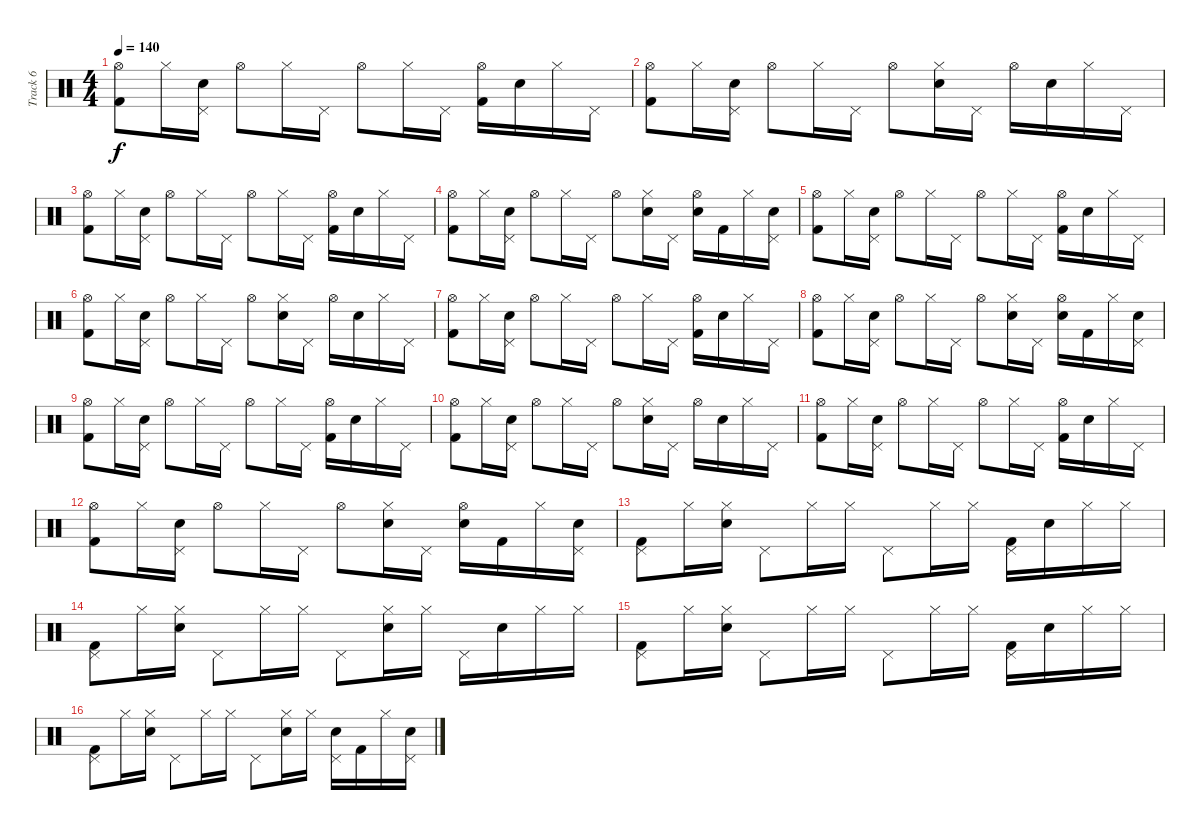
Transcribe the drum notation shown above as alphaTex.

\track ("Track 6" "Track 6") {instrument percussion}
\staff {score}
\articulation defaults
\ts (4 4)
\tempo 140
\clef neutral
\ks c
("Hi-Hat (open)" "Kick (hit) 2").8{dy f} "Hi-Hat (closed)".16 ("Pedal Hi-Hat (hit)" "Electric Snare (hit)").16 "Hi-Hat (open)".8 "Hi-Hat (closed)".16 "Pedal Hi-Hat (hit)".16 "Hi-Hat (open)".8 "Hi-Hat (closed)".16 "Pedal Hi-Hat (hit)".16 ("Hi-Hat (open)" "Kick (hit) 2").16 "Electric Snare (hit)".16 "Hi-Hat (closed)".16 "Pedal Hi-Hat (hit)".16 |
("Hi-Hat (open)" "Kick (hit) 2").8 "Hi-Hat (closed)".16 ("Pedal Hi-Hat (hit)" "Electric Snare (hit)").16 "Hi-Hat (open)".8 "Hi-Hat (closed)".16 "Pedal Hi-Hat (hit)".16 "Hi-Hat (open)".8 ("Hi-Hat (closed)" "Electric Snare (hit)").16 "Pedal Hi-Hat (hit)".16 "Hi-Hat (open)".16 "Electric Snare (hit)".16 "Hi-Hat (closed)".16 "Pedal Hi-Hat (hit)".16 |
("Hi-Hat (open)" "Kick (hit) 2").8 "Hi-Hat (closed)".16 ("Pedal Hi-Hat (hit)" "Electric Snare (hit)").16 "Hi-Hat (open)".8 "Hi-Hat (closed)".16 "Pedal Hi-Hat (hit)".16 "Hi-Hat (open)".8 "Hi-Hat (closed)".16 "Pedal Hi-Hat (hit)".16 ("Hi-Hat (open)" "Kick (hit) 2").16 "Electric Snare (hit)".16 "Hi-Hat (closed)".16 "Pedal Hi-Hat (hit)".16 |
("Hi-Hat (open)" "Kick (hit) 2").8 "Hi-Hat (closed)".16 ("Pedal Hi-Hat (hit)" "Electric Snare (hit)").16 "Hi-Hat (open)".8 "Hi-Hat (closed)".16 "Pedal Hi-Hat (hit)".16 "Hi-Hat (open)".8 ("Hi-Hat (closed)" "Electric Snare (hit)").16 "Pedal Hi-Hat (hit)".16 ("Hi-Hat (open)" "Electric Snare (hit)").16 "Kick (hit) 2".16 "Hi-Hat (closed)".16 ("Pedal Hi-Hat (hit)" "Electric Snare (hit)").16 |
("Hi-Hat (open)" "Kick (hit) 2").8 "Hi-Hat (closed)".16 ("Pedal Hi-Hat (hit)" "Electric Snare (hit)").16 "Hi-Hat (open)".8 "Hi-Hat (closed)".16 "Pedal Hi-Hat (hit)".16 "Hi-Hat (open)".8 "Hi-Hat (closed)".16 "Pedal Hi-Hat (hit)".16 ("Hi-Hat (open)" "Kick (hit) 2").16 "Electric Snare (hit)".16 "Hi-Hat (closed)".16 "Pedal Hi-Hat (hit)".16 |
("Hi-Hat (open)" "Kick (hit) 2").8 "Hi-Hat (closed)".16 ("Pedal Hi-Hat (hit)" "Electric Snare (hit)").16 "Hi-Hat (open)".8 "Hi-Hat (closed)".16 "Pedal Hi-Hat (hit)".16 "Hi-Hat (open)".8 ("Hi-Hat (closed)" "Electric Snare (hit)").16 "Pedal Hi-Hat (hit)".16 "Hi-Hat (open)".16 "Electric Snare (hit)".16 "Hi-Hat (closed)".16 "Pedal Hi-Hat (hit)".16 |
("Hi-Hat (open)" "Kick (hit) 2").8 "Hi-Hat (closed)".16 ("Pedal Hi-Hat (hit)" "Electric Snare (hit)").16 "Hi-Hat (open)".8 "Hi-Hat (closed)".16 "Pedal Hi-Hat (hit)".16 "Hi-Hat (open)".8 "Hi-Hat (closed)".16 "Pedal Hi-Hat (hit)".16 ("Hi-Hat (open)" "Kick (hit) 2").16 "Electric Snare (hit)".16 "Hi-Hat (closed)".16 "Pedal Hi-Hat (hit)".16 |
("Hi-Hat (open)" "Kick (hit) 2").8 "Hi-Hat (closed)".16 ("Pedal Hi-Hat (hit)" "Electric Snare (hit)").16 "Hi-Hat (open)".8 "Hi-Hat (closed)".16 "Pedal Hi-Hat (hit)".16 "Hi-Hat (open)".8 ("Hi-Hat (closed)" "Electric Snare (hit)").16 "Pedal Hi-Hat (hit)".16 ("Hi-Hat (open)" "Electric Snare (hit)").16 "Kick (hit) 2".16 "Hi-Hat (closed)".16 ("Pedal Hi-Hat (hit)" "Electric Snare (hit)").16 |
("Hi-Hat (open)" "Kick (hit) 2").8 "Hi-Hat (closed)".16 ("Pedal Hi-Hat (hit)" "Electric Snare (hit)").16 "Hi-Hat (open)".8 "Hi-Hat (closed)".16 "Pedal Hi-Hat (hit)".16 "Hi-Hat (open)".8 "Hi-Hat (closed)".16 "Pedal Hi-Hat (hit)".16 ("Hi-Hat (open)" "Kick (hit) 2").16 "Electric Snare (hit)".16 "Hi-Hat (closed)".16 "Pedal Hi-Hat (hit)".16 |
("Hi-Hat (open)" "Kick (hit) 2").8 "Hi-Hat (closed)".16 ("Pedal Hi-Hat (hit)" "Electric Snare (hit)").16 "Hi-Hat (open)".8 "Hi-Hat (closed)".16 "Pedal Hi-Hat (hit)".16 "Hi-Hat (open)".8 ("Hi-Hat (closed)" "Electric Snare (hit)").16 "Pedal Hi-Hat (hit)".16 "Hi-Hat (open)".16 "Electric Snare (hit)".16 "Hi-Hat (closed)".16 "Pedal Hi-Hat (hit)".16 |
("Hi-Hat (open)" "Kick (hit) 2").8 "Hi-Hat (closed)".16 ("Pedal Hi-Hat (hit)" "Electric Snare (hit)").16 "Hi-Hat (open)".8 "Hi-Hat (closed)".16 "Pedal Hi-Hat (hit)".16 "Hi-Hat (open)".8 "Hi-Hat (closed)".16 "Pedal Hi-Hat (hit)".16 ("Hi-Hat (open)" "Kick (hit) 2").16 "Electric Snare (hit)".16 "Hi-Hat (closed)".16 "Pedal Hi-Hat (hit)".16 |
("Hi-Hat (open)" "Kick (hit) 2").8 "Hi-Hat (closed)".16 ("Pedal Hi-Hat (hit)" "Electric Snare (hit)").16 "Hi-Hat (open)".8 "Hi-Hat (closed)".16 "Pedal Hi-Hat (hit)".16 "Hi-Hat (open)".8 ("Hi-Hat (closed)" "Electric Snare (hit)").16 "Pedal Hi-Hat (hit)".16 ("Hi-Hat (open)" "Electric Snare (hit)").16 "Kick (hit) 2".16 "Hi-Hat (closed)".16 ("Pedal Hi-Hat (hit)" "Electric Snare (hit)").16 |
("Pedal Hi-Hat (hit)" "Kick (hit) 2").8 "Hi-Hat (closed)".16 ("Hi-Hat (closed)" "Electric Snare (hit)").16 "Pedal Hi-Hat (hit)".8 "Hi-Hat (closed)".16 "Hi-Hat (closed)".16 "Pedal Hi-Hat (hit)".8 "Hi-Hat (closed)".16 "Hi-Hat (closed)".16 ("Pedal Hi-Hat (hit)" "Kick (hit) 2").16 "Electric Snare (hit)".16 "Hi-Hat (closed)".16 "Hi-Hat (closed)".16 |
("Pedal Hi-Hat (hit)" "Kick (hit) 2").8 "Hi-Hat (closed)".16 ("Hi-Hat (closed)" "Electric Snare (hit)").16 "Pedal Hi-Hat (hit)".8 "Hi-Hat (closed)".16 "Hi-Hat (closed)".16 "Pedal Hi-Hat (hit)".8 ("Hi-Hat (closed)" "Electric Snare (hit)").16 "Hi-Hat (closed)".16 "Pedal Hi-Hat (hit)".16 "Electric Snare (hit)".16 "Hi-Hat (closed)".16 "Hi-Hat (closed)".16 |
("Pedal Hi-Hat (hit)" "Kick (hit) 2").8 "Hi-Hat (closed)".16 ("Hi-Hat (closed)" "Electric Snare (hit)").16 "Pedal Hi-Hat (hit)".8 "Hi-Hat (closed)".16 "Hi-Hat (closed)".16 "Pedal Hi-Hat (hit)".8 "Hi-Hat (closed)".16 "Hi-Hat (closed)".16 ("Pedal Hi-Hat (hit)" "Kick (hit) 2").16 "Electric Snare (hit)".16 "Hi-Hat (closed)".16 "Hi-Hat (closed)".16 |
("Pedal Hi-Hat (hit)" "Kick (hit) 2").8 "Hi-Hat (closed)".16 ("Hi-Hat (closed)" "Electric Snare (hit)").16 "Pedal Hi-Hat (hit)".8 "Hi-Hat (closed)".16 "Hi-Hat (closed)".16 "Pedal Hi-Hat (hit)".8 ("Hi-Hat (closed)" "Electric Snare (hit)").16 "Hi-Hat (closed)".16 ("Pedal Hi-Hat (hit)" "Electric Snare (hit)").16 "Kick (hit) 2".16 "Hi-Hat (closed)".16 ("Pedal Hi-Hat (hit)" "Electric Snare (hit)").16
